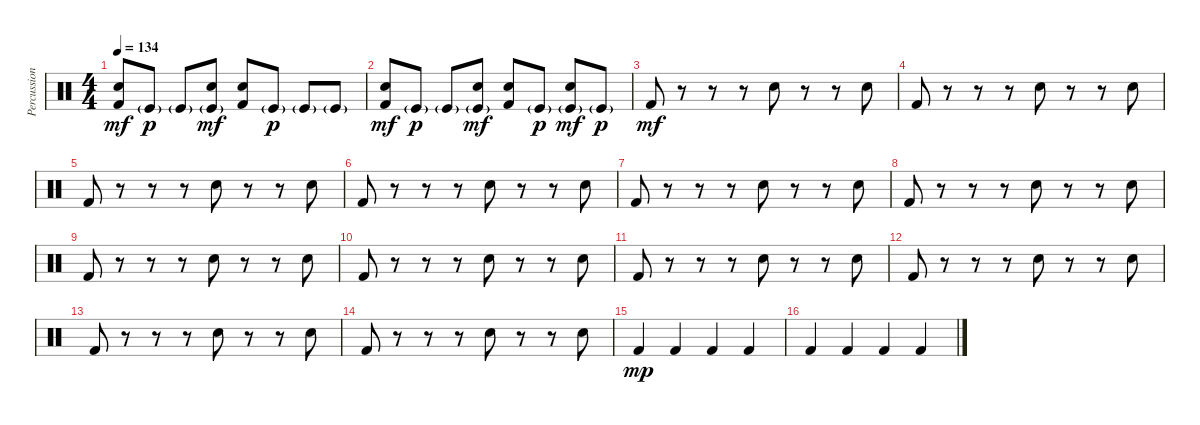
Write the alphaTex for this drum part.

\track ("Percussion" "Percussion") {instrument percussion}
\staff {score}
\articulation defaults
\ts (4 4)
\tempo 134
\clef neutral
\ks c
("Kick (hit) 2" "Snare (hit) 2").8{dy mf} "Kick (hit)"{g}.8{dy p} "Kick (hit)"{g}.8 ("Kick (hit)"{g} "Snare (hit) 2").8{dy mf} ("Kick (hit) 2" "Snare (hit) 2").8 "Kick (hit)"{g}.8{dy p} "Kick (hit)"{g}.8 "Kick (hit)"{g}.8 |
("Kick (hit) 2" "Snare (hit) 2").8{dy mf} "Kick (hit)"{g}.8{dy p} "Kick (hit)"{g}.8 ("Kick (hit)"{g} "Snare (hit) 2").8{dy mf} ("Kick (hit) 2" "Snare (hit) 2").8 "Kick (hit)"{g}.8{dy p} ("Kick (hit)"{g} "Snare (hit) 2").8{dy mf} "Kick (hit)"{g}.8{dy p} |
"Kick (hit) 2".8{dy mf} r.8 r.8 r.8 "Snare (hit) 2".8 r.8 r.8 "Snare (hit) 2".8 |
"Kick (hit) 2".8 r.8 r.8 r.8 "Snare (hit) 2".8 r.8 r.8 "Snare (hit) 2".8 |
"Kick (hit) 2".8 r.8 r.8 r.8 "Snare (hit) 2".8 r.8 r.8 "Snare (hit) 2".8 |
"Kick (hit) 2".8 r.8 r.8 r.8 "Snare (hit) 2".8 r.8 r.8 "Snare (hit) 2".8 |
"Kick (hit) 2".8 r.8 r.8 r.8 "Snare (hit) 2".8 r.8 r.8 "Snare (hit) 2".8 |
"Kick (hit) 2".8 r.8 r.8 r.8 "Snare (hit) 2".8 r.8 r.8 "Snare (hit) 2".8 |
"Kick (hit) 2".8 r.8 r.8 r.8 "Snare (hit) 2".8 r.8 r.8 "Snare (hit) 2".8 |
"Kick (hit) 2".8 r.8 r.8 r.8 "Snare (hit) 2".8 r.8 r.8 "Snare (hit) 2".8 |
"Kick (hit) 2".8 r.8 r.8 r.8 "Snare (hit) 2".8 r.8 r.8 "Snare (hit) 2".8 |
"Kick (hit) 2".8 r.8 r.8 r.8 "Snare (hit) 2".8 r.8 r.8 "Snare (hit) 2".8 |
"Kick (hit) 2".8 r.8 r.8 r.8 "Snare (hit) 2".8 r.8 r.8 "Snare (hit) 2".8 |
"Kick (hit) 2".8 r.8 r.8 r.8 "Snare (hit) 2".8 r.8 r.8 "Snare (hit) 2".8 |
"Kick (hit) 2".4{dy mp} "Kick (hit) 2".4 "Kick (hit) 2".4 "Kick (hit) 2".4 |
"Kick (hit) 2".4 "Kick (hit) 2".4 "Kick (hit) 2".4 "Kick (hit) 2".4
